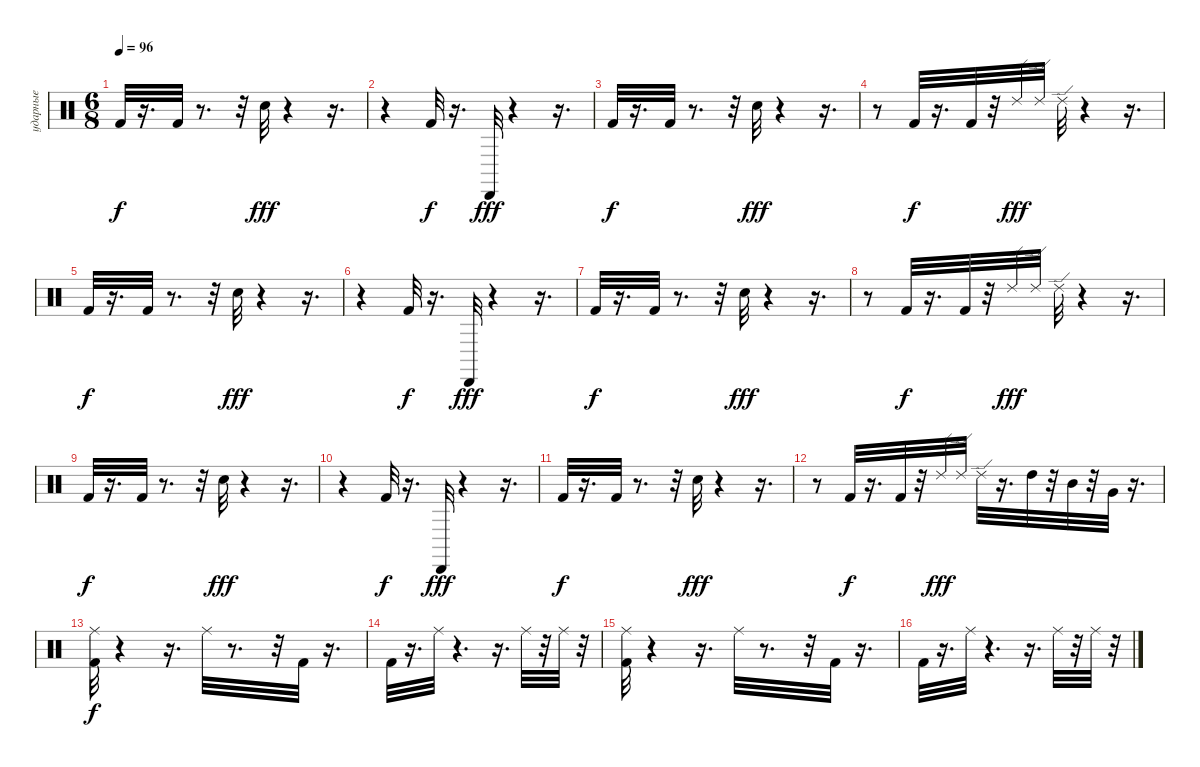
\track ("ударные" "ударные") {instrument percussion}
\staff {score}
\articulation defaults
\ts (6 8)
\tempo 96
\clef neutral
\ks c "Kick (hit) 2".32{dy f}
r.16{d} "Kick (hit) 2".32 r.8{d} r.32 "Snare (hit) 2".32{dy fff} r.4 r.16{d} |
r.4 "Kick (hit) 2".32{dy f} r.16{d} "Cabasa (hit)".32{dy fff} r.4 r.16{d} |
"Kick (hit) 2".32{dy f} r.16{d} "Kick (hit) 2".32 r.8{d} r.32 "Snare (hit) 2".32{dy fff} r.4 r.16{d} |
r.8 "Kick (hit) 2".32{dy f} r.16{d} "Kick (hit) 2".32 r.32 "Ride (edge) 2".32{dy fff} "Ride (edge) 2".32 "Ride (edge) 2".32 r.4 r.16{d} |
"Kick (hit) 2".32{dy f} r.16{d} "Kick (hit) 2".32 r.8{d} r.32 "Snare (hit) 2".32{dy fff} r.4 r.16{d} |
r.4 "Kick (hit) 2".32{dy f} r.16{d} "Cabasa (hit)".32{dy fff} r.4 r.16{d} |
"Kick (hit) 2".32{dy f} r.16{d} "Kick (hit) 2".32 r.8{d} r.32 "Snare (hit) 2".32{dy fff} r.4 r.16{d} |
r.8 "Kick (hit) 2".32{dy f} r.16{d} "Kick (hit) 2".32 r.32 "Ride (edge) 2".32{dy fff} "Ride (edge) 2".32 "Ride (edge) 2".32 r.4 r.16{d} |
"Kick (hit) 2".32{dy f} r.16{d} "Kick (hit) 2".32 r.8{d} r.32 "Snare (hit) 2".32{dy fff} r.4 r.16{d} |
r.4 "Kick (hit) 2".32{dy f} r.16{d} "Cabasa (hit)".32{dy fff} r.4 r.16{d} |
"Kick (hit) 2".32{dy f} r.16{d} "Kick (hit) 2".32 r.8{d} r.32 "Snare (hit) 2".32{dy fff} r.4 r.16{d} |
r.8 "Kick (hit) 2".32{dy f} r.16{d} "Kick (hit) 2".32 r.32 "Ride (edge) 2".32{dy fff} "Ride (edge) 2".32 "Ride (edge) 2".32 r.16{d} "High Tom (hit)".32 r.32 "Mid Tom (hit)".32 r.32 "Very Low Tom (hit)".32 r.16{d} |
("Ride (middle)" "Kick (hit) 2").32{dy f} r.4 r.16{d} "Ride (middle)".32 r.8{d} r.32 "Kick (hit) 2".32 r.16{d} |
"Kick (hit) 2".32 r.16{d} "Ride (middle)".32 r.4{d} r.16{d} "Ride (middle)".32 r.32 "Ride (middle)".32 r.32 |
("Ride (middle)" "Kick (hit) 2").32 r.4 r.16{d} "Ride (middle)".32 r.8{d} r.32 "Kick (hit) 2".32 r.16{d} |
"Kick (hit) 2".32 r.16{d} "Ride (middle)".32 r.4{d} r.16{d} "Ride (middle)".32 r.32 "Ride (middle)".32 r.32
